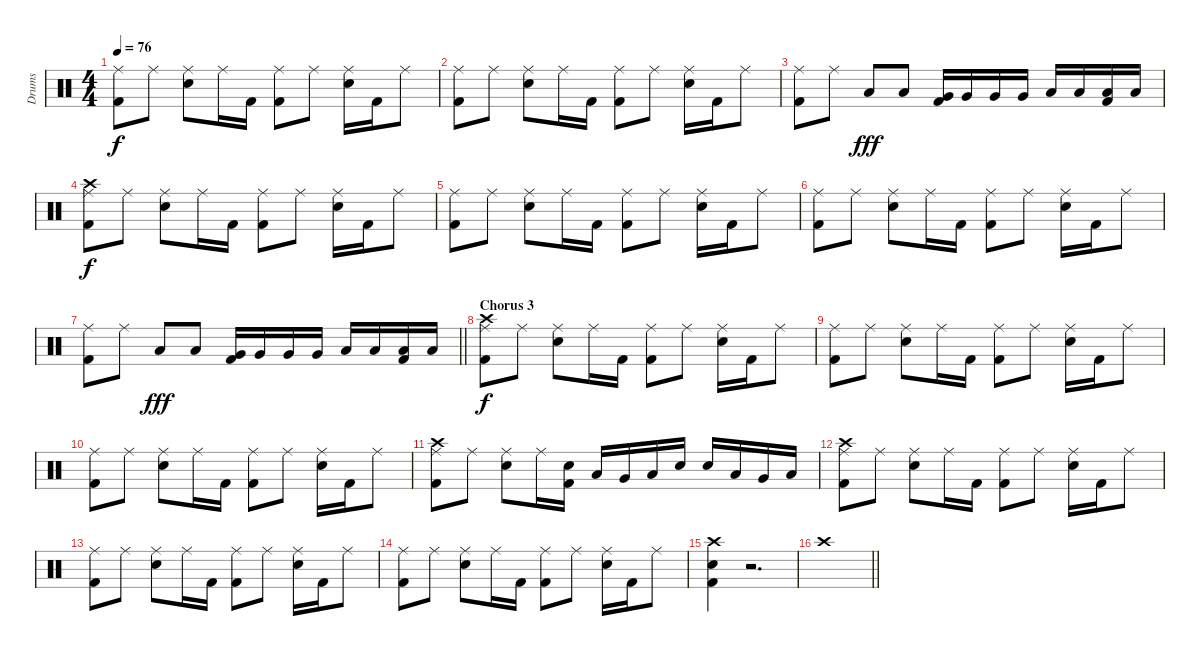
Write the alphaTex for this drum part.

\track ("Drums" "Drums") {instrument percussion}
\staff {score}
\articulation defaults
\ts (4 4)
\tempo 76
\clef neutral
\ks c
("Ride (middle)" "Kick (hit) 2").8{dy f} "Ride (middle)".8 ("Ride (middle)" "Snare (hit) 2").8 "Ride (middle)".16 "Kick (hit) 2".16 ("Ride (middle)" "Kick (hit) 2").8 "Ride (middle)".8 ("Ride (middle)" "Snare (hit) 2").16 "Kick (hit) 2".16 "Ride (middle)".8 |
("Ride (middle)" "Kick (hit) 2").8 "Ride (middle)".8 ("Ride (middle)" "Snare (hit) 2").8 "Ride (middle)".16 "Kick (hit) 2".16 ("Ride (middle)" "Kick (hit) 2").8 "Ride (middle)".8 ("Ride (middle)" "Snare (hit) 2").16 "Kick (hit) 2".16 "Ride (middle)".8 |
("Ride (middle)" "Kick (hit) 2").8 "Ride (middle)".8 "Low Tom (hit)".8{dy fff} "Low Tom (hit)".8 ("Very Low Tom (hit)" "Kick (hit) 2").16 "Very Low Tom (hit)".16 "Very Low Tom (hit)".16 "Very Low Tom (hit)".16 "Low Floor Tom (hit)".16 "Low Floor Tom (hit)".16 ("Low Floor Tom (hit)" "Kick (hit) 2").16 "Low Floor Tom (hit)".16 |
("Crash high (hit)" "Ride (middle)" "Kick (hit) 2").8{dy f} "Ride (middle)".8 ("Ride (middle)" "Snare (hit) 2").8 "Ride (middle)".16 "Kick (hit) 2".16 ("Ride (middle)" "Kick (hit) 2").8 "Ride (middle)".8 ("Ride (middle)" "Snare (hit) 2").16 "Kick (hit) 2".16 "Ride (middle)".8 |
("Ride (middle)" "Kick (hit) 2").8 "Ride (middle)".8 ("Ride (middle)" "Snare (hit) 2").8 "Ride (middle)".16 "Kick (hit) 2".16 ("Ride (middle)" "Kick (hit) 2").8 "Ride (middle)".8 ("Ride (middle)" "Snare (hit) 2").16 "Kick (hit) 2".16 "Ride (middle)".8 |
("Ride (middle)" "Kick (hit) 2").8 "Ride (middle)".8 ("Ride (middle)" "Snare (hit) 2").8 "Ride (middle)".16 "Kick (hit) 2".16 ("Ride (middle)" "Kick (hit) 2").8 "Ride (middle)".8 ("Ride (middle)" "Snare (hit) 2").16 "Kick (hit) 2".16 "Ride (middle)".8 |
\barLineRight lightlight
("Ride (middle)" "Kick (hit) 2").8 "Ride (middle)".8 "Low Tom (hit)".8{dy fff} "Low Tom (hit)".8 ("Very Low Tom (hit)" "Kick (hit) 2").16 "Very Low Tom (hit)".16 "Very Low Tom (hit)".16 "Very Low Tom (hit)".16 "Low Floor Tom (hit)".16 "Low Floor Tom (hit)".16 ("Low Floor Tom (hit)" "Kick (hit) 2").16 "Low Floor Tom (hit)".16 |
\section ("" "Chorus 3")
("Crash high (hit)" "Ride (middle)" "Kick (hit) 2").8{dy f} "Ride (middle)".8 ("Ride (middle)" "Snare (hit) 2").8 "Ride (middle)".16 "Kick (hit) 2".16 ("Ride (middle)" "Kick (hit) 2").8 "Ride (middle)".8 ("Ride (middle)" "Snare (hit) 2").16 "Kick (hit) 2".16 "Ride (middle)".8 |
("Ride (middle)" "Kick (hit) 2").8 "Ride (middle)".8 ("Ride (middle)" "Snare (hit) 2").8 "Ride (middle)".16 "Kick (hit) 2".16 ("Ride (middle)" "Kick (hit) 2").8 "Ride (middle)".8 ("Ride (middle)" "Snare (hit) 2").16 "Kick (hit) 2".16 "Ride (middle)".8 |
("Ride (middle)" "Kick (hit) 2").8 "Ride (middle)".8 ("Ride (middle)" "Snare (hit) 2").8 "Ride (middle)".16 "Kick (hit) 2".16 ("Ride (middle)" "Kick (hit) 2").8 "Ride (middle)".8 ("Ride (middle)" "Snare (hit) 2").16 "Kick (hit) 2".16 "Ride (middle)".8 |
("Crash high (hit)" "Ride (middle)" "Kick (hit) 2").8 "Ride (middle)".8 ("Ride (middle)" "Snare (hit) 2").8 "Ride (middle)".16 ("Electric Snare (hit)" "Kick (hit) 2").16 "Low Tom (hit)".16 "Very Low Tom (hit)".16 "Low Floor Tom (hit)".16 "Electric Snare (hit)".16 "Electric Snare (hit)".16 "Low Tom (hit)".16 "Very Low Tom (hit)".16 "Low Floor Tom (hit)".16 |
("Crash high (hit)" "Ride (middle)" "Kick (hit) 2").8 "Ride (middle)".8 ("Ride (middle)" "Snare (hit) 2").8 "Ride (middle)".16 "Kick (hit) 2".16 ("Ride (middle)" "Kick (hit) 2").8 "Ride (middle)".8 ("Ride (middle)" "Snare (hit) 2").16 "Kick (hit) 2".16 "Ride (middle)".8 |
("Ride (middle)" "Kick (hit) 2").8 "Ride (middle)".8 ("Ride (middle)" "Snare (hit) 2").8 "Ride (middle)".16 "Kick (hit) 2".16 ("Ride (middle)" "Kick (hit) 2").8 "Ride (middle)".8 ("Ride (middle)" "Snare (hit) 2").16 "Kick (hit) 2".16 "Ride (middle)".8 |
("Ride (middle)" "Kick (hit) 2").8 "Ride (middle)".8 ("Ride (middle)" "Snare (hit) 2").8 "Ride (middle)".16 "Kick (hit) 2".16 ("Ride (middle)" "Kick (hit) 2").8 "Ride (middle)".8 ("Ride (middle)" "Snare (hit) 2").16 "Kick (hit) 2".16 "Ride (middle)".8 |
("Crash high (hit)" "Snare (hit) 2" "Kick (hit) 2").4 r.2{d} |
\barLineRight lightlight "Crash high (hit)".1
